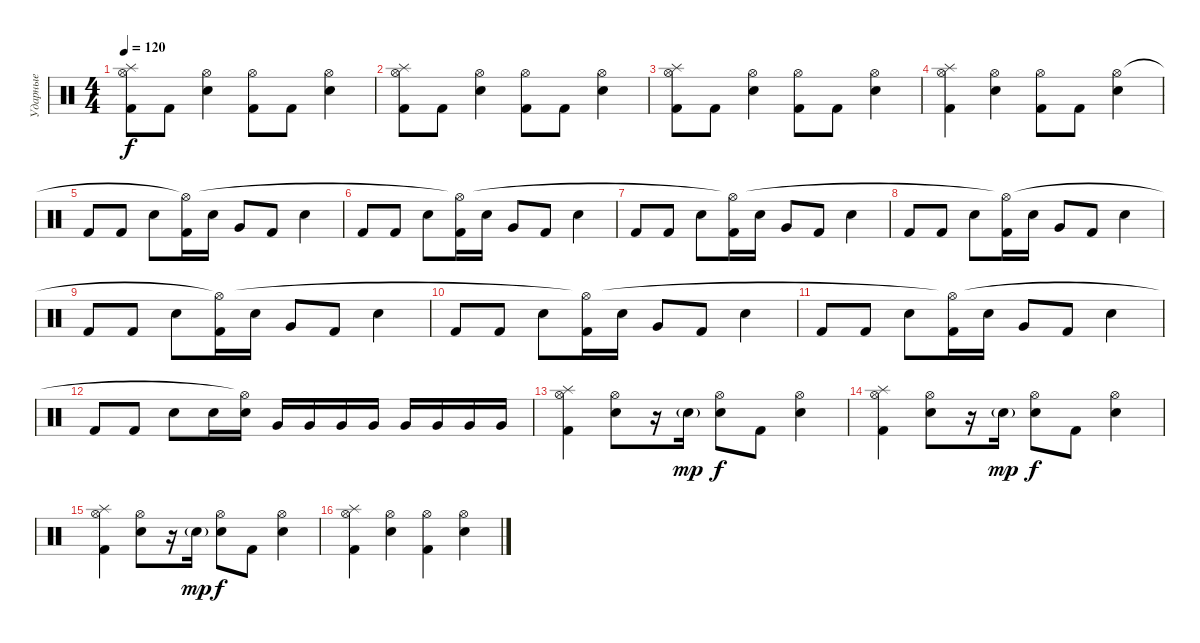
\track ("Ударные" "Ударные") {instrument percussion}
\staff {score}
\articulation defaults
\ts (4 4)
\tempo 120
\clef neutral
\ks c
("Kick (hit) 2" "Hi-Hat (open)" "Splash (hit)").8{dy f} "Kick (hit) 2".8 ("Electric Snare (hit)" "Hi-Hat (open)").4 ("Kick (hit) 2" "Hi-Hat (open)").8 "Kick (hit) 2".8 ("Electric Snare (hit)" "Hi-Hat (open)").4 |
("Kick (hit) 2" "Hi-Hat (open)" "Splash (hit)").8 "Kick (hit) 2".8 ("Electric Snare (hit)" "Hi-Hat (open)").4 ("Kick (hit) 2" "Hi-Hat (open)").8 "Kick (hit) 2".8 ("Electric Snare (hit)" "Hi-Hat (open)").4 |
("Kick (hit) 2" "Hi-Hat (open)" "Splash (hit)").8 "Kick (hit) 2".8 ("Electric Snare (hit)" "Hi-Hat (open)").4 ("Kick (hit) 2" "Hi-Hat (open)").8 "Kick (hit) 2".8 ("Electric Snare (hit)" "Hi-Hat (open)").4 |
("Kick (hit) 2" "Hi-Hat (open)" "Splash (hit)").4 ("Electric Snare (hit)" "Hi-Hat (open)").4 ("Kick (hit) 2" "Hi-Hat (open)").8 "Kick (hit) 2".8 ("Electric Snare (hit)" "Hi-Hat (open)").4 |
"Kick (hit) 2".8 "Kick (hit) 2".8 "Electric Snare (hit)".8 ("Kick (hit) 2" "Hi-Hat (open)"{t}).16 "Electric Snare (hit)".16 "Very Low Tom (hit)".8 "Kick (hit) 2".8 "Electric Snare (hit)".4 |
"Kick (hit) 2".8 "Kick (hit) 2".8 "Electric Snare (hit)".8 ("Kick (hit) 2" "Hi-Hat (open)"{t}).16 "Electric Snare (hit)".16 "Very Low Tom (hit)".8 "Kick (hit) 2".8 "Electric Snare (hit)".4 |
"Kick (hit) 2".8 "Kick (hit) 2".8 "Electric Snare (hit)".8 ("Kick (hit) 2" "Hi-Hat (open)"{t}).16 "Electric Snare (hit)".16 "Very Low Tom (hit)".8 "Kick (hit) 2".8 "Electric Snare (hit)".4 |
"Kick (hit) 2".8 "Kick (hit) 2".8 "Electric Snare (hit)".8 ("Kick (hit) 2" "Hi-Hat (open)"{t}).16 "Electric Snare (hit)".16 "Very Low Tom (hit)".8 "Kick (hit) 2".8 "Electric Snare (hit)".4 |
"Kick (hit) 2".8 "Kick (hit) 2".8 "Electric Snare (hit)".8 ("Kick (hit) 2" "Hi-Hat (open)"{t}).16 "Electric Snare (hit)".16 "Very Low Tom (hit)".8 "Kick (hit) 2".8 "Electric Snare (hit)".4 |
"Kick (hit) 2".8 "Kick (hit) 2".8 "Electric Snare (hit)".8 ("Kick (hit) 2" "Hi-Hat (open)"{t}).16 "Electric Snare (hit)".16 "Very Low Tom (hit)".8 "Kick (hit) 2".8 "Electric Snare (hit)".4 |
"Kick (hit) 2".8 "Kick (hit) 2".8 "Electric Snare (hit)".8 ("Kick (hit) 2" "Hi-Hat (open)"{t}).16 "Electric Snare (hit)".16 "Very Low Tom (hit)".8 "Kick (hit) 2".8 "Electric Snare (hit)".4 |
"Kick (hit) 2".8 "Kick (hit) 2".8 "Electric Snare (hit)".8 "Electric Snare (hit)".16 ("Electric Snare (hit)" "Hi-Hat (open)"{t}).16 "Very Low Tom (hit)".16 "Very Low Tom (hit)".16 "Very Low Tom (hit)".16 "Very Low Tom (hit)".16 "Very Low Tom (hit)".16 "Very Low Tom (hit)".16 "Very Low Tom (hit)".16 "Very Low Tom (hit)".16 |
("Kick (hit) 2" "Hi-Hat (open)" "Splash (hit)").4 ("Electric Snare (hit)" "Hi-Hat (open)").8 r.16 "Electric Snare (hit)"{g}.16{dy mp} ("Electric Snare (hit)" "Hi-Hat (open)").8{dy f} "Kick (hit) 2".8 ("Electric Snare (hit)" "Hi-Hat (open)").4 |
("Kick (hit) 2" "Hi-Hat (open)" "Splash (hit)").4 ("Electric Snare (hit)" "Hi-Hat (open)").8 r.16 "Electric Snare (hit)"{g}.16{dy mp} ("Electric Snare (hit)" "Hi-Hat (open)").8{dy f} "Kick (hit) 2".8 ("Electric Snare (hit)" "Hi-Hat (open)").4 |
("Kick (hit) 2" "Hi-Hat (open)" "Splash (hit)").4 ("Electric Snare (hit)" "Hi-Hat (open)").8 r.16 "Electric Snare (hit)"{g}.16{dy mp} ("Electric Snare (hit)" "Hi-Hat (open)").8{dy f} "Kick (hit) 2".8 ("Electric Snare (hit)" "Hi-Hat (open)").4 |
("Kick (hit) 2" "Hi-Hat (open)" "Splash (hit)").4 ("Electric Snare (hit)" "Hi-Hat (open)").4 ("Kick (hit) 2" "Hi-Hat (open)").4 ("Electric Snare (hit)" "Hi-Hat (open)").4
